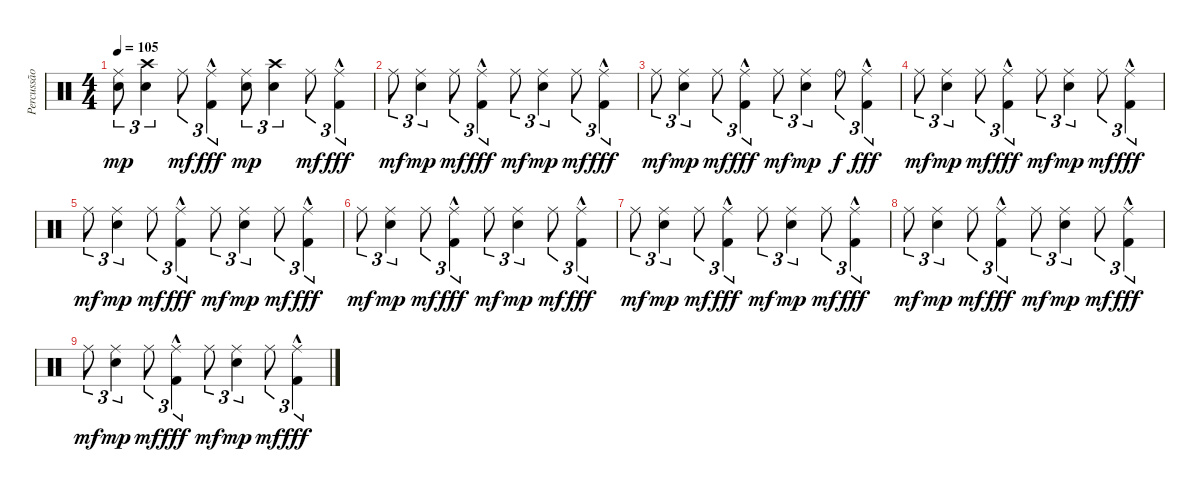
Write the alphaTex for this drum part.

\track ("Percussão" "Percussão") {instrument percussion}
\staff {score}
\articulation defaults
\ts (4 4)
\tempo 105
\clef neutral
\ks c
("Ride (middle)" "Electric Snare (hit)").8{tu (3 2) dy mp} ("Crash high (hit)" "Electric Snare (hit)").4{tu (3 2)} "Ride (middle)".8{tu (3 2) dy mf} ("Ride (middle)" "Kick (hit) 2"{hac}).4{tu (3 2) dy fff} ("Ride (middle)" "Electric Snare (hit)").8{tu (3 2) dy mp} ("Crash high (hit)" "Electric Snare (hit)").4{tu (3 2)} "Ride (middle)".8{tu (3 2) dy mf} ("Ride (middle)" "Kick (hit) 2"{hac}).4{tu (3 2) dy fff} |
"Ride (middle)".8{tu (3 2) dy mf} ("Ride (middle)" "Electric Snare (hit)").4{tu (3 2) dy mp} "Ride (middle)".8{tu (3 2) dy mf} ("Ride (middle)" "Kick (hit) 2"{hac}).4{tu (3 2) dy fff} "Ride (middle)".8{tu (3 2) dy mf} ("Ride (middle)" "Electric Snare (hit)").4{tu (3 2) dy mp} "Ride (middle)".8{tu (3 2) dy mf} ("Ride (middle)" "Kick (hit) 2"{hac}).4{tu (3 2) dy fff} |
"Ride (middle)".8{tu (3 2) dy mf} ("Ride (middle)" "Electric Snare (hit)").4{tu (3 2) dy mp} "Ride (middle)".8{tu (3 2) dy mf volume 0} ("Ride (middle)" "Kick (hit) 2"{hac}).4{tu (3 2) dy fff} "Ride (middle)".8{tu (3 2) dy mf} ("Ride (middle)" "Electric Snare (hit)").4{tu (3 2) dy mp} "Ride (bell)".8{tu (3 2) dy f} ("Ride (middle)" "Kick (hit) 2"{hac}).4{tu (3 2) dy fff} |
"Ride (middle)".8{tu (3 2) dy mf} ("Ride (middle)" "Electric Snare (hit)").4{tu (3 2) dy mp} "Ride (middle)".8{tu (3 2) dy mf} ("Ride (middle)" "Kick (hit) 2"{hac}).4{tu (3 2) dy fff} "Ride (middle)".8{tu (3 2) dy mf} ("Ride (middle)" "Electric Snare (hit)").4{tu (3 2) dy mp} "Ride (middle)".8{tu (3 2) dy mf} ("Ride (middle)" "Kick (hit) 2"{hac}).4{tu (3 2) dy fff} |
"Ride (middle)".8{tu (3 2) dy mf} ("Ride (middle)" "Electric Snare (hit)").4{tu (3 2) dy mp} "Ride (middle)".8{tu (3 2) dy mf} ("Ride (middle)" "Kick (hit) 2"{hac}).4{tu (3 2) dy fff} "Ride (middle)".8{tu (3 2) dy mf} ("Ride (middle)" "Electric Snare (hit)").4{tu (3 2) dy mp} "Ride (middle)".8{tu (3 2) dy mf} ("Ride (middle)" "Kick (hit) 2"{hac}).4{tu (3 2) dy fff} |
"Ride (middle)".8{tu (3 2) dy mf} ("Ride (middle)" "Electric Snare (hit)").4{tu (3 2) dy mp} "Ride (middle)".8{tu (3 2) dy mf} ("Ride (middle)" "Kick (hit) 2"{hac}).4{tu (3 2) dy fff} "Ride (middle)".8{tu (3 2) dy mf} ("Ride (middle)" "Electric Snare (hit)").4{tu (3 2) dy mp} "Ride (middle)".8{tu (3 2) dy mf} ("Ride (middle)" "Kick (hit) 2"{hac}).4{tu (3 2) dy fff} |
"Ride (middle)".8{tu (3 2) dy mf} ("Ride (middle)" "Electric Snare (hit)").4{tu (3 2) dy mp} "Ride (middle)".8{tu (3 2) dy mf} ("Ride (middle)" "Kick (hit) 2"{hac}).4{tu (3 2) dy fff} "Ride (middle)".8{tu (3 2) dy mf} ("Ride (middle)" "Electric Snare (hit)").4{tu (3 2) dy mp} "Ride (middle)".8{tu (3 2) dy mf} ("Ride (middle)" "Kick (hit) 2"{hac}).4{tu (3 2) dy fff} |
"Ride (middle)".8{tu (3 2) dy mf} ("Ride (middle)" "Electric Snare (hit)").4{tu (3 2) dy mp} "Ride (middle)".8{tu (3 2) dy mf} ("Ride (middle)" "Kick (hit) 2"{hac}).4{tu (3 2) dy fff} "Ride (middle)".8{tu (3 2) dy mf} ("Ride (middle)" "Electric Snare (hit)").4{tu (3 2) dy mp} "Ride (middle)".8{tu (3 2) dy mf} ("Ride (middle)" "Kick (hit) 2"{hac}).4{tu (3 2) dy fff} |
"Ride (middle)".8{tu (3 2) dy mf} ("Ride (middle)" "Electric Snare (hit)").4{tu (3 2) dy mp} "Ride (middle)".8{tu (3 2) dy mf} ("Ride (middle)" "Kick (hit) 2"{hac}).4{tu (3 2) dy fff} "Ride (middle)".8{tu (3 2) dy mf} ("Ride (middle)" "Electric Snare (hit)").4{tu (3 2) dy mp} "Ride (middle)".8{tu (3 2) dy mf} ("Ride (middle)" "Kick (hit) 2"{hac}).4{tu (3 2) dy fff}
